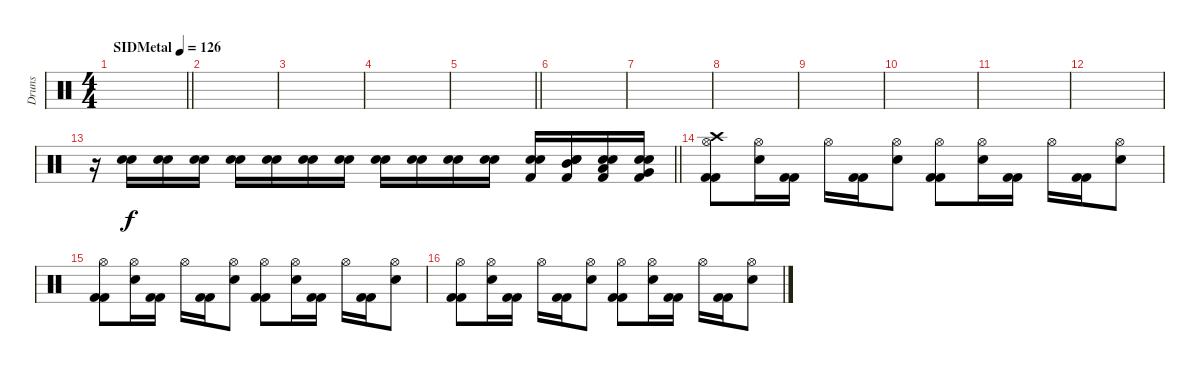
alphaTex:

\track ("Druns" "Druns") {instrument percussion}
\staff {score}
\articulation defaults
\ts (4 4)
\tempo (126 "SIDMetal")
\clef neutral
\barLineRight lightlight
\ks c
|
\section ("" "")
|
|
|
\barLineRight lightlight
|
|
|
|
|
|
|
|
\barLineRight lightlight
r.16{volume 0} ("Electric Snare (hit)" "Electric Snare (hit)").16{volume 13} ("Snare (hit) 2" "Electric Snare (hit)").16 ("Snare (hit) 2" "Electric Snare (hit)").16 ("Snare (hit) 2" "Electric Snare (hit)").16 ("Snare (hit) 2" "Electric Snare (hit)").16 ("Snare (hit) 2" "Electric Snare (hit)").16 ("Snare (hit) 2" "Electric Snare (hit)").16 ("Snare (hit) 2" "Electric Snare (hit)").16 ("Snare (hit) 2" "Electric Snare (hit)").16 ("Snare (hit) 2" "Electric Snare (hit)").16 ("Snare (hit) 2" "Electric Snare (hit)").16 ("Snare (hit) 2" "Electric Snare (hit)" "Kick (hit) 2").16 ("Mid Tom (hit)" "Snare (hit) 2" "Electric Snare (hit)" "Kick (hit) 2").16 ("Low Tom (hit)" "Snare (hit) 2" "Electric Snare (hit)" "Kick (hit) 2").16 ("Snare (hit) 2" "Electric Snare (hit)" "Very Low Tom (hit)" "Kick (hit) 2").16 |
\section ("" "")
("Crash high (hit)" "Hi-Hat (open)" "Kick (hit) 2" "Kick (hit) 2").8 ("Hi-Hat (open)" "Electric Snare (hit)").16 ("Kick (hit) 2" "Kick (hit) 2").16 "Hi-Hat (open)".16 ("Kick (hit) 2" "Kick (hit) 2").16 ("Hi-Hat (open)" "Electric Snare (hit)").8 ("Hi-Hat (open)" "Kick (hit) 2" "Kick (hit) 2").8 ("Hi-Hat (open)" "Electric Snare (hit)").16 ("Kick (hit) 2" "Kick (hit) 2").16 "Hi-Hat (open)".16 ("Kick (hit) 2" "Kick (hit) 2").16 ("Hi-Hat (open)" "Electric Snare (hit)").8 |
("Hi-Hat (open)" "Kick (hit) 2" "Kick (hit) 2").8 ("Hi-Hat (open)" "Electric Snare (hit)").16 ("Kick (hit) 2" "Kick (hit) 2").16 "Hi-Hat (open)".16 ("Kick (hit) 2" "Kick (hit) 2").16 ("Hi-Hat (open)" "Electric Snare (hit)").8 ("Hi-Hat (open)" "Kick (hit) 2" "Kick (hit) 2").8 ("Hi-Hat (open)" "Electric Snare (hit)").16 ("Kick (hit) 2" "Kick (hit) 2").16 "Hi-Hat (open)".16 ("Kick (hit) 2" "Kick (hit) 2").16 ("Hi-Hat (open)" "Electric Snare (hit)").8 |
("Hi-Hat (open)" "Kick (hit) 2" "Kick (hit) 2").8 ("Hi-Hat (open)" "Electric Snare (hit)").16 ("Kick (hit) 2" "Kick (hit) 2").16 "Hi-Hat (open)".16 ("Kick (hit) 2" "Kick (hit) 2").16 ("Hi-Hat (open)" "Electric Snare (hit)").8 ("Hi-Hat (open)" "Kick (hit) 2" "Kick (hit) 2").8 ("Hi-Hat (open)" "Electric Snare (hit)").16 ("Kick (hit) 2" "Kick (hit) 2").16 "Hi-Hat (open)".16 ("Kick (hit) 2" "Kick (hit) 2").16 ("Hi-Hat (open)" "Electric Snare (hit)").8
